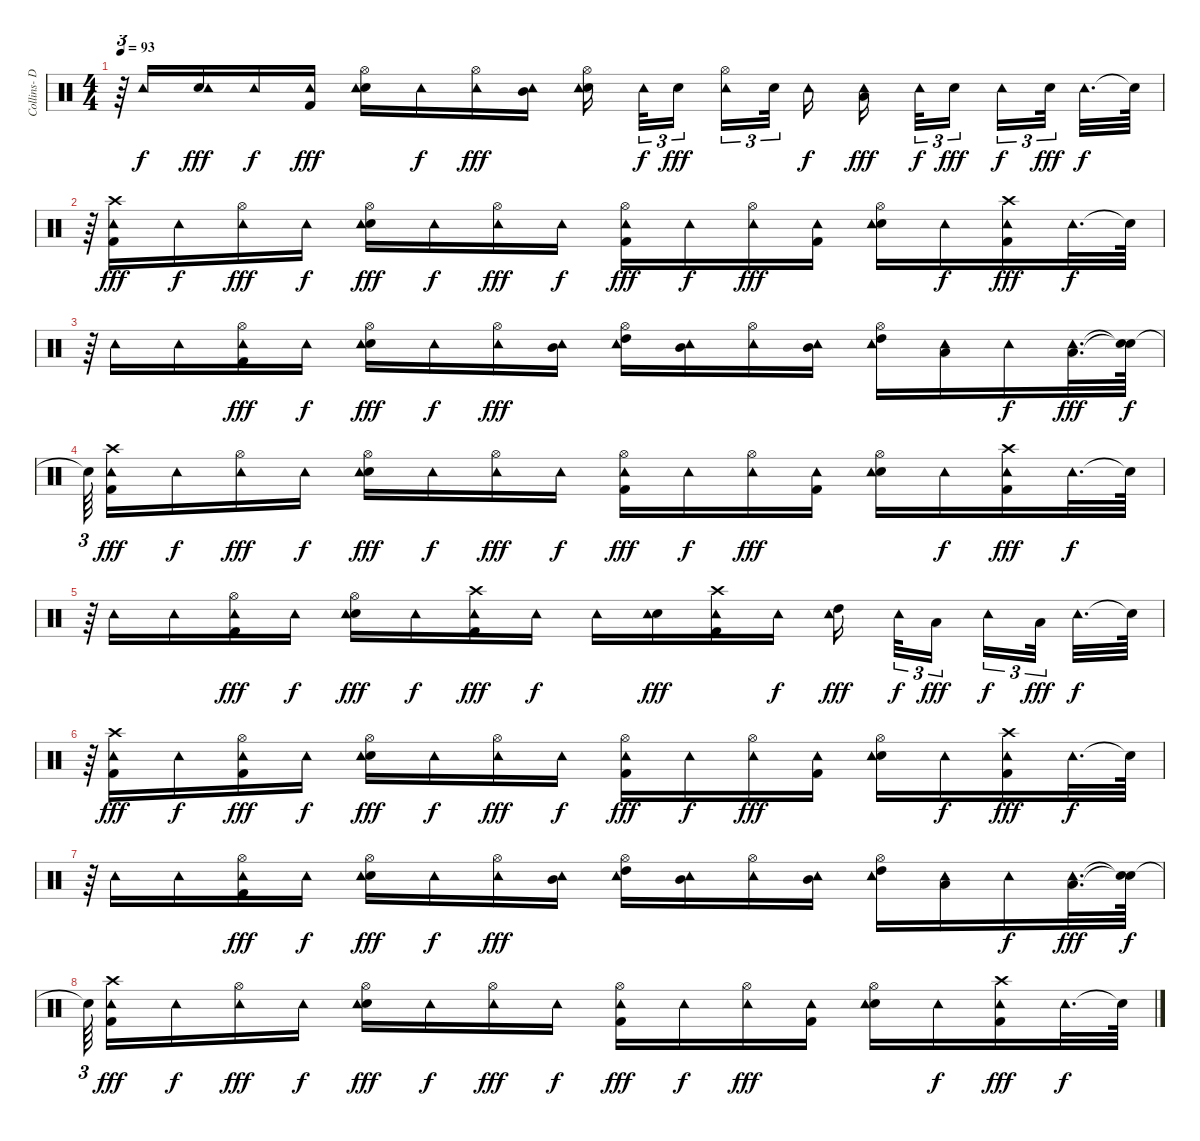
\track ("Collins- Drums" "Collins- D") {instrument percussion}
\staff {score}
\articulation defaults
\ts (4 4)
\tempo 93
\clef neutral
\ks c
r.64{tu (3 2) dy f} "Tambourine (hit)".16 ("Electric Snare (hit)" "Tambourine (hit)").16{dy fff} "Tambourine (hit)".16{dy f} ("Kick (hit) 2" "Tambourine (hit)").16{dy fff} ("Hi-Hat (open)" "Electric Snare (hit)" "Tambourine (hit)").16 "Tambourine (hit)".16{dy f} ("Hi-Hat (open)" "Tambourine (hit)").16{dy fff} ("Mid Tom (hit)" "Tambourine (hit)").16 ("Electric Snare (hit)" "Hi-Hat (open)" "Tambourine (hit)").16{beam splitsecondary} "Tambourine (hit)".32{tu (3 2) dy f} "Electric Snare (hit)".16{tu (3 2) dy fff beam splitsecondary} ("Hi-Hat (open)" "Tambourine (hit)").16{tu (3 2)} "Electric Snare (hit)".32{tu (3 2) beam splitsecondary} "Tambourine (hit)".16{dy f} ("Low Tom (hit)" "Tambourine (hit)").16{dy fff beam splitsecondary} "Tambourine (hit)".32{tu (3 2) dy f} "Electric Snare (hit)".16{tu (3 2) dy fff beam splitsecondary} "Tambourine (hit)".16{tu (3 2) dy f} "Electric Snare (hit)".32{tu (3 2) dy fff beam splitsecondary} "Tambourine (hit)".32{d dy f} "Snare (hit)"{t}.64 |
r.64{tu (3 2)} ("Crash high (hit)" "Kick (hit) 2" "Tambourine (hit)").16{dy fff} "Tambourine (hit)".16{dy f} ("Hi-Hat (open)" "Tambourine (hit)").16{dy fff} "Tambourine (hit)".16{dy f} ("Hi-Hat (open)" "Electric Snare (hit)" "Tambourine (hit)").16{dy fff} "Tambourine (hit)".16{dy f} ("Hi-Hat (open)" "Tambourine (hit)").16{dy fff} "Tambourine (hit)".16{dy f} ("Hi-Hat (open)" "Kick (hit) 2" "Tambourine (hit)").16{dy fff} "Tambourine (hit)".16{dy f} ("Hi-Hat (open)" "Tambourine (hit)").16{dy fff} ("Kick (hit) 2" "Tambourine (hit)").16 ("Hi-Hat (open)" "Electric Snare (hit)" "Tambourine (hit)").16 "Tambourine (hit)".16{dy f} ("Kick (hit) 2" "Crash high (hit)" "Tambourine (hit)").16{dy fff} "Tambourine (hit)".32{d dy f} "Snare (hit)"{t}.64 |
r.64{tu (3 2)} "Tambourine (hit)".16 "Tambourine (hit)".16 ("Hi-Hat (open)" "Kick (hit) 2" "Tambourine (hit)").16{dy fff} "Tambourine (hit)".16{dy f} ("Hi-Hat (open)" "Electric Snare (hit)" "Tambourine (hit)").16{dy fff} "Tambourine (hit)".16{dy f} ("Hi-Hat (open)" "Tambourine (hit)").16{dy fff} ("Mid Tom (hit)" "Tambourine (hit)").16 ("High Tom (hit)" "Hi-Hat (open)" "Tambourine (hit)").16 ("Mid Tom (hit)" "Tambourine (hit)").16 ("Hi-Hat (open)" "Tambourine (hit)").16 ("Mid Tom (hit)" "Tambourine (hit)").16 ("Hi-Hat (open)" "High Tom (hit)" "Tambourine (hit)").16 ("Low Tom (hit)" "Tambourine (hit)").16 "Tambourine (hit)".16{dy f} ("Low Tom (hit)" "Tambourine (hit)").32{d dy fff} ("Snare (hit)"{t} "Snare (hit)"{t}).64{dy f} |
"Snare (hit)"{t}.64{tu (3 2) beam splitsecondary} ("Crash high (hit)" "Kick (hit) 2" "Tambourine (hit)").16{dy fff} "Tambourine (hit)".16{dy f} ("Hi-Hat (open)" "Tambourine (hit)").16{dy fff} "Tambourine (hit)".16{dy f} ("Hi-Hat (open)" "Electric Snare (hit)" "Tambourine (hit)").16{dy fff} "Tambourine (hit)".16{dy f} ("Hi-Hat (open)" "Tambourine (hit)").16{dy fff} "Tambourine (hit)".16{dy f} ("Hi-Hat (open)" "Kick (hit) 2" "Tambourine (hit)").16{dy fff} "Tambourine (hit)".16{dy f} ("Hi-Hat (open)" "Tambourine (hit)").16{dy fff} ("Kick (hit) 2" "Tambourine (hit)").16 ("Hi-Hat (open)" "Electric Snare (hit)" "Tambourine (hit)").16 "Tambourine (hit)".16{dy f} ("Kick (hit) 2" "Crash high (hit)" "Tambourine (hit)").16{dy fff} "Tambourine (hit)".32{d dy f} "Snare (hit)"{t}.64 |
r.64{tu (3 2)} "Tambourine (hit)".16 "Tambourine (hit)".16 ("Hi-Hat (open)" "Kick (hit) 2" "Tambourine (hit)").16{dy fff} "Tambourine (hit)".16{dy f} ("Hi-Hat (open)" "Electric Snare (hit)" "Tambourine (hit)").16{dy fff} "Tambourine (hit)".16{dy f} ("Kick (hit) 2" "Crash high (hit)" "Tambourine (hit)").16{dy fff} "Tambourine (hit)".16{dy f} "Tambourine (hit)".16 ("Electric Snare (hit)" "Tambourine (hit)").16{dy fff} ("Kick (hit) 2" "Crash high (hit)" "Tambourine (hit)").16 "Tambourine (hit)".16{dy f} ("High Tom (hit)" "Tambourine (hit)").16{dy fff beam splitsecondary} "Tambourine (hit)".32{tu (3 2) dy f} "Low Tom (hit)".16{tu (3 2) dy fff beam splitsecondary} "Tambourine (hit)".16{tu (3 2) dy f} "Low Tom (hit)".32{tu (3 2) dy fff beam splitsecondary} "Tambourine (hit)".32{d dy f} "Snare (hit)"{t}.64 |
r.64{tu (3 2)} ("Kick (hit) 2" "Crash high (hit)" "Tambourine (hit)").16{dy fff} "Tambourine (hit)".16{dy f} ("Hi-Hat (open)" "Kick (hit) 2" "Tambourine (hit)").16{dy fff} "Tambourine (hit)".16{dy f} ("Hi-Hat (open)" "Electric Snare (hit)" "Tambourine (hit)").16{dy fff} "Tambourine (hit)".16{dy f} ("Hi-Hat (open)" "Tambourine (hit)").16{dy fff} "Tambourine (hit)".16{dy f} ("Hi-Hat (open)" "Kick (hit) 2" "Tambourine (hit)").16{dy fff} "Tambourine (hit)".16{dy f} ("Hi-Hat (open)" "Tambourine (hit)").16{dy fff} ("Kick (hit) 2" "Tambourine (hit)").16 ("Hi-Hat (open)" "Electric Snare (hit)" "Tambourine (hit)").16 "Tambourine (hit)".16{dy f} ("Kick (hit) 2" "Crash high (hit)" "Tambourine (hit)").16{dy fff} "Tambourine (hit)".32{d dy f} "Snare (hit)"{t}.64 |
r.64{tu (3 2)} "Tambourine (hit)".16 "Tambourine (hit)".16 ("Hi-Hat (open)" "Kick (hit) 2" "Tambourine (hit)").16{dy fff} "Tambourine (hit)".16{dy f} ("Hi-Hat (open)" "Electric Snare (hit)" "Tambourine (hit)").16{dy fff} "Tambourine (hit)".16{dy f} ("Hi-Hat (open)" "Tambourine (hit)").16{dy fff} ("Mid Tom (hit)" "Tambourine (hit)").16 ("High Tom (hit)" "Hi-Hat (open)" "Tambourine (hit)").16 ("Mid Tom (hit)" "Tambourine (hit)").16 ("Hi-Hat (open)" "Tambourine (hit)").16 ("Mid Tom (hit)" "Tambourine (hit)").16 ("Hi-Hat (open)" "High Tom (hit)" "Tambourine (hit)").16 ("Low Tom (hit)" "Tambourine (hit)").16 "Tambourine (hit)".16{dy f} ("Low Tom (hit)" "Tambourine (hit)").32{d dy fff} ("Snare (hit)"{t} "Snare (hit)"{t}).64{dy f} |
"Snare (hit)"{t}.64{tu (3 2) beam splitsecondary} ("Crash high (hit)" "Kick (hit) 2" "Tambourine (hit)").16{dy fff} "Tambourine (hit)".16{dy f} ("Hi-Hat (open)" "Tambourine (hit)").16{dy fff} "Tambourine (hit)".16{dy f} ("Hi-Hat (open)" "Electric Snare (hit)" "Tambourine (hit)").16{dy fff} "Tambourine (hit)".16{dy f} ("Hi-Hat (open)" "Tambourine (hit)").16{dy fff} "Tambourine (hit)".16{dy f} ("Hi-Hat (open)" "Kick (hit) 2" "Tambourine (hit)").16{dy fff} "Tambourine (hit)".16{dy f} ("Hi-Hat (open)" "Tambourine (hit)").16{dy fff} ("Kick (hit) 2" "Tambourine (hit)").16 ("Hi-Hat (open)" "Electric Snare (hit)" "Tambourine (hit)").16 "Tambourine (hit)".16{dy f} ("Kick (hit) 2" "Crash high (hit)" "Tambourine (hit)").16{dy fff} "Tambourine (hit)".32{d dy f} "Snare (hit)"{t}.64
